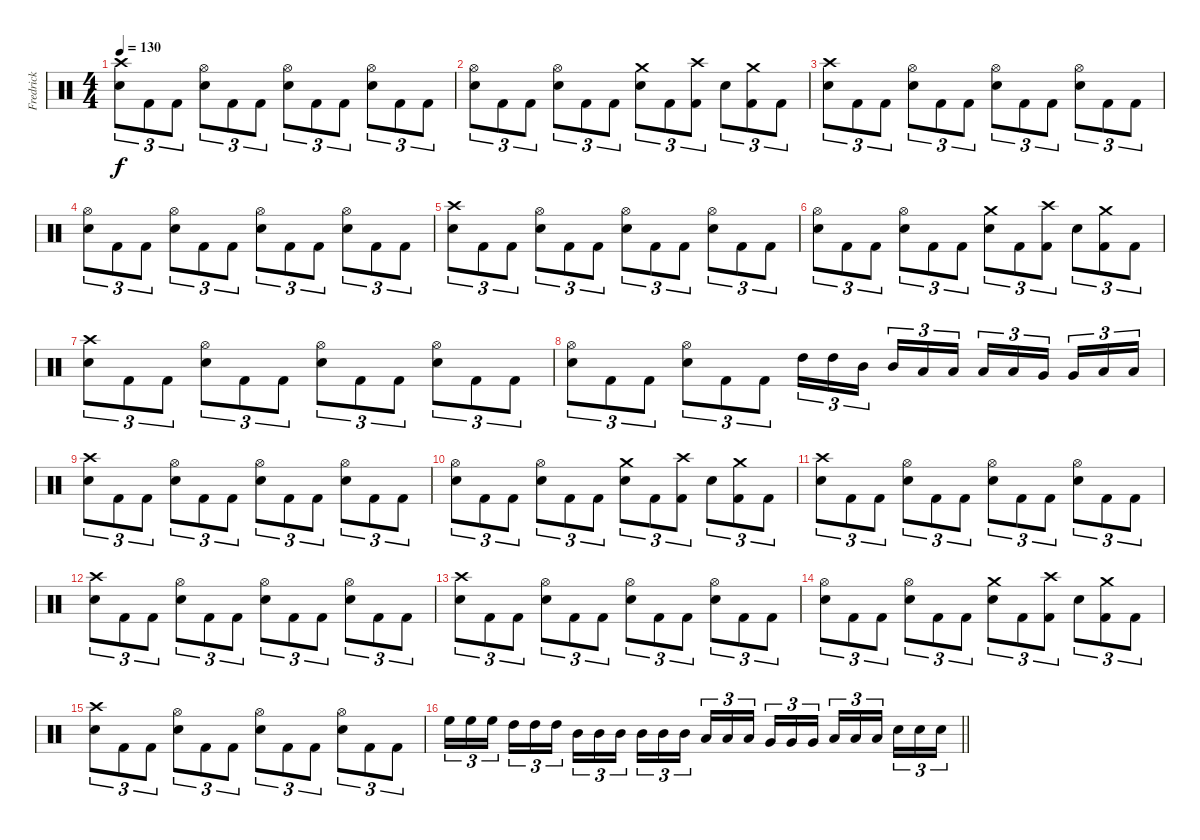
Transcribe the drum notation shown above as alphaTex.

\track ("Fredrick" "Fredrick") {instrument percussion}
\staff {score}
\articulation defaults
\ts (4 4)
\tempo 130
\clef neutral
\ks c
("Crash high (hit)" "Electric Snare (hit)").8{tu (3 2) dy f} "Kick (hit) 2".8{tu (3 2)} "Kick (hit) 2".8{tu (3 2)} ("Hi-Hat (open)" "Electric Snare (hit)").8{tu (3 2)} "Kick (hit) 2".8{tu (3 2)} "Kick (hit) 2".8{tu (3 2)} ("Hi-Hat (open)" "Electric Snare (hit)").8{tu (3 2)} "Kick (hit) 2".8{tu (3 2)} "Kick (hit) 2".8{tu (3 2)} ("Hi-Hat (open)" "Electric Snare (hit)").8{tu (3 2)} "Kick (hit) 2".8{tu (3 2)} "Kick (hit) 2".8{tu (3 2)} |
("Hi-Hat (open)" "Electric Snare (hit)").8{tu (3 2)} "Kick (hit) 2".8{tu (3 2)} "Kick (hit) 2".8{tu (3 2)} ("Hi-Hat (open)" "Electric Snare (hit)").8{tu (3 2)} "Kick (hit) 2".8{tu (3 2)} "Kick (hit) 2".8{tu (3 2)} ("Crash medium (hit)" "Electric Snare (hit)").8{tu (3 2)} "Kick (hit) 2".8{tu (3 2)} ("Crash high (hit)" "Kick (hit) 2").8{tu (3 2)} "Electric Snare (hit)".8{tu (3 2)} ("Crash medium (hit)" "Kick (hit) 2").8{tu (3 2)} "Kick (hit) 2".8{tu (3 2)} |
("Crash high (hit)" "Electric Snare (hit)").8{tu (3 2)} "Kick (hit) 2".8{tu (3 2)} "Kick (hit) 2".8{tu (3 2)} ("Hi-Hat (open)" "Electric Snare (hit)").8{tu (3 2)} "Kick (hit) 2".8{tu (3 2)} "Kick (hit) 2".8{tu (3 2)} ("Hi-Hat (open)" "Electric Snare (hit)").8{tu (3 2)} "Kick (hit) 2".8{tu (3 2)} "Kick (hit) 2".8{tu (3 2)} ("Hi-Hat (open)" "Electric Snare (hit)").8{tu (3 2)} "Kick (hit) 2".8{tu (3 2)} "Kick (hit) 2".8{tu (3 2)} |
("Hi-Hat (open)" "Electric Snare (hit)").8{tu (3 2)} "Kick (hit) 2".8{tu (3 2)} "Kick (hit) 2".8{tu (3 2)} ("Hi-Hat (open)" "Electric Snare (hit)").8{tu (3 2)} "Kick (hit) 2".8{tu (3 2)} "Kick (hit) 2".8{tu (3 2)} ("Hi-Hat (open)" "Electric Snare (hit)").8{tu (3 2)} "Kick (hit) 2".8{tu (3 2)} "Kick (hit) 2".8{tu (3 2)} ("Hi-Hat (open)" "Electric Snare (hit)").8{tu (3 2)} "Kick (hit) 2".8{tu (3 2)} "Kick (hit) 2".8{tu (3 2)} |
("Crash high (hit)" "Electric Snare (hit)").8{tu (3 2)} "Kick (hit) 2".8{tu (3 2)} "Kick (hit) 2".8{tu (3 2)} ("Hi-Hat (open)" "Electric Snare (hit)").8{tu (3 2)} "Kick (hit) 2".8{tu (3 2)} "Kick (hit) 2".8{tu (3 2)} ("Hi-Hat (open)" "Electric Snare (hit)").8{tu (3 2)} "Kick (hit) 2".8{tu (3 2)} "Kick (hit) 2".8{tu (3 2)} ("Hi-Hat (open)" "Electric Snare (hit)").8{tu (3 2)} "Kick (hit) 2".8{tu (3 2)} "Kick (hit) 2".8{tu (3 2)} |
("Hi-Hat (open)" "Electric Snare (hit)").8{tu (3 2)} "Kick (hit) 2".8{tu (3 2)} "Kick (hit) 2".8{tu (3 2)} ("Hi-Hat (open)" "Electric Snare (hit)").8{tu (3 2)} "Kick (hit) 2".8{tu (3 2)} "Kick (hit) 2".8{tu (3 2)} ("Crash medium (hit)" "Electric Snare (hit)").8{tu (3 2)} "Kick (hit) 2".8{tu (3 2)} ("Crash high (hit)" "Kick (hit) 2").8{tu (3 2)} "Electric Snare (hit)".8{tu (3 2)} ("Crash medium (hit)" "Kick (hit) 2").8{tu (3 2)} "Kick (hit) 2".8{tu (3 2)} |
("Crash high (hit)" "Electric Snare (hit)").8{tu (3 2)} "Kick (hit) 2".8{tu (3 2)} "Kick (hit) 2".8{tu (3 2)} ("Hi-Hat (open)" "Electric Snare (hit)").8{tu (3 2)} "Kick (hit) 2".8{tu (3 2)} "Kick (hit) 2".8{tu (3 2)} ("Hi-Hat (open)" "Electric Snare (hit)").8{tu (3 2)} "Kick (hit) 2".8{tu (3 2)} "Kick (hit) 2".8{tu (3 2)} ("Hi-Hat (open)" "Electric Snare (hit)").8{tu (3 2)} "Kick (hit) 2".8{tu (3 2)} "Kick (hit) 2".8{tu (3 2)} |
("Hi-Hat (open)" "Electric Snare (hit)").8{tu (3 2)} "Kick (hit) 2".8{tu (3 2)} "Kick (hit) 2".8{tu (3 2)} ("Hi-Hat (open)" "Electric Snare (hit)").8{tu (3 2)} "Kick (hit) 2".8{tu (3 2)} "Kick (hit) 2".8{tu (3 2)} "High Tom (hit)".16{tu (3 2)} "High Tom (hit)".16{tu (3 2)} "Mid Tom (hit)".16{tu (3 2) beam splitsecondary} "Mid Tom (hit)".16{tu (3 2)} "Low Tom (hit)".16{tu (3 2)} "Low Tom (hit)".16{tu (3 2)} "Low Tom (hit)".16{tu (3 2)} "Low Tom (hit)".16{tu (3 2)} "Very Low Tom (hit)".16{tu (3 2) beam splitsecondary} "Very Low Tom (hit)".16{tu (3 2)} "Low Floor Tom (hit)".16{tu (3 2)} "Low Floor Tom (hit)".16{tu (3 2)} |
("Crash high (hit)" "Electric Snare (hit)").8{tu (3 2)} "Kick (hit) 2".8{tu (3 2)} "Kick (hit) 2".8{tu (3 2)} ("Hi-Hat (open)" "Electric Snare (hit)").8{tu (3 2)} "Kick (hit) 2".8{tu (3 2)} "Kick (hit) 2".8{tu (3 2)} ("Hi-Hat (open)" "Electric Snare (hit)").8{tu (3 2)} "Kick (hit) 2".8{tu (3 2)} "Kick (hit) 2".8{tu (3 2)} ("Hi-Hat (open)" "Electric Snare (hit)").8{tu (3 2)} "Kick (hit) 2".8{tu (3 2)} "Kick (hit) 2".8{tu (3 2)} |
("Hi-Hat (open)" "Electric Snare (hit)").8{tu (3 2)} "Kick (hit) 2".8{tu (3 2)} "Kick (hit) 2".8{tu (3 2)} ("Hi-Hat (open)" "Electric Snare (hit)").8{tu (3 2)} "Kick (hit) 2".8{tu (3 2)} "Kick (hit) 2".8{tu (3 2)} ("Crash medium (hit)" "Electric Snare (hit)").8{tu (3 2)} "Kick (hit) 2".8{tu (3 2)} ("Crash high (hit)" "Kick (hit) 2").8{tu (3 2)} "Electric Snare (hit)".8{tu (3 2)} ("Crash medium (hit)" "Kick (hit) 2").8{tu (3 2)} "Kick (hit) 2".8{tu (3 2)} |
("Crash high (hit)" "Electric Snare (hit)").8{tu (3 2)} "Kick (hit) 2".8{tu (3 2)} "Kick (hit) 2".8{tu (3 2)} ("Hi-Hat (open)" "Electric Snare (hit)").8{tu (3 2)} "Kick (hit) 2".8{tu (3 2)} "Kick (hit) 2".8{tu (3 2)} ("Hi-Hat (open)" "Electric Snare (hit)").8{tu (3 2)} "Kick (hit) 2".8{tu (3 2)} "Kick (hit) 2".8{tu (3 2)} ("Hi-Hat (open)" "Electric Snare (hit)").8{tu (3 2)} "Kick (hit) 2".8{tu (3 2)} "Kick (hit) 2".8{tu (3 2)} |
("Crash high (hit)" "Electric Snare (hit)").8{tu (3 2)} "Kick (hit) 2".8{tu (3 2)} "Kick (hit) 2".8{tu (3 2)} ("Hi-Hat (open)" "Electric Snare (hit)").8{tu (3 2)} "Kick (hit) 2".8{tu (3 2)} "Kick (hit) 2".8{tu (3 2)} ("Hi-Hat (open)" "Electric Snare (hit)").8{tu (3 2)} "Kick (hit) 2".8{tu (3 2)} "Kick (hit) 2".8{tu (3 2)} ("Hi-Hat (open)" "Electric Snare (hit)").8{tu (3 2)} "Kick (hit) 2".8{tu (3 2)} "Kick (hit) 2".8{tu (3 2)} |
("Crash high (hit)" "Electric Snare (hit)").8{tu (3 2)} "Kick (hit) 2".8{tu (3 2)} "Kick (hit) 2".8{tu (3 2)} ("Hi-Hat (open)" "Electric Snare (hit)").8{tu (3 2)} "Kick (hit) 2".8{tu (3 2)} "Kick (hit) 2".8{tu (3 2)} ("Hi-Hat (open)" "Electric Snare (hit)").8{tu (3 2)} "Kick (hit) 2".8{tu (3 2)} "Kick (hit) 2".8{tu (3 2)} ("Hi-Hat (open)" "Electric Snare (hit)").8{tu (3 2)} "Kick (hit) 2".8{tu (3 2)} "Kick (hit) 2".8{tu (3 2)} |
("Hi-Hat (open)" "Electric Snare (hit)").8{tu (3 2)} "Kick (hit) 2".8{tu (3 2)} "Kick (hit) 2".8{tu (3 2)} ("Hi-Hat (open)" "Electric Snare (hit)").8{tu (3 2)} "Kick (hit) 2".8{tu (3 2)} "Kick (hit) 2".8{tu (3 2)} ("Crash medium (hit)" "Electric Snare (hit)").8{tu (3 2)} "Kick (hit) 2".8{tu (3 2)} ("Crash high (hit)" "Kick (hit) 2").8{tu (3 2)} "Electric Snare (hit)".8{tu (3 2)} ("Crash medium (hit)" "Kick (hit) 2").8{tu (3 2)} "Kick (hit) 2".8{tu (3 2)} |
("Crash high (hit)" "Electric Snare (hit)").8{tu (3 2)} "Kick (hit) 2".8{tu (3 2)} "Kick (hit) 2".8{tu (3 2)} ("Hi-Hat (open)" "Electric Snare (hit)").8{tu (3 2)} "Kick (hit) 2".8{tu (3 2)} "Kick (hit) 2".8{tu (3 2)} ("Hi-Hat (open)" "Electric Snare (hit)").8{tu (3 2)} "Kick (hit) 2".8{tu (3 2)} "Kick (hit) 2".8{tu (3 2)} ("Hi-Hat (open)" "Electric Snare (hit)").8{tu (3 2)} "Kick (hit) 2".8{tu (3 2)} "Kick (hit) 2".8{tu (3 2)} |
\barLineRight lightlight "High Floor Tom (hit)".16{tu (3 2)} "High Floor Tom (hit)".16{tu (3 2)} "High Floor Tom (hit)".16{tu (3 2) beam splitsecondary} "High Tom (hit)".16{tu (3 2)} "High Tom (hit)".16{tu (3 2)} "High Tom (hit)".16{tu (3 2)} "Mid Tom (hit)".16{tu (3 2)} "Mid Tom (hit)".16{tu (3 2)} "Mid Tom (hit)".16{tu (3 2) beam splitsecondary} "Mid Tom (hit)".16{tu (3 2)} "Mid Tom (hit)".16{tu (3 2)} "Mid Tom (hit)".16{tu (3 2)} "Low Tom (hit)".16{tu (3 2)} "Low Tom (hit)".16{tu (3 2)} "Low Tom (hit)".16{tu (3 2) beam splitsecondary} "Very Low Tom (hit)".16{tu (3 2)} "Very Low Tom (hit)".16{tu (3 2)} "Very Low Tom (hit)".16{tu (3 2)} "Low Floor Tom (hit)".16{tu (3 2)} "Low Floor Tom (hit)".16{tu (3 2)} "Low Floor Tom (hit)".16{tu (3 2) beam splitsecondary} "Electric Snare (hit)".16{tu (3 2)} "Electric Snare (hit)".16{tu (3 2)} "Electric Snare (hit)".16{tu (3 2)}
